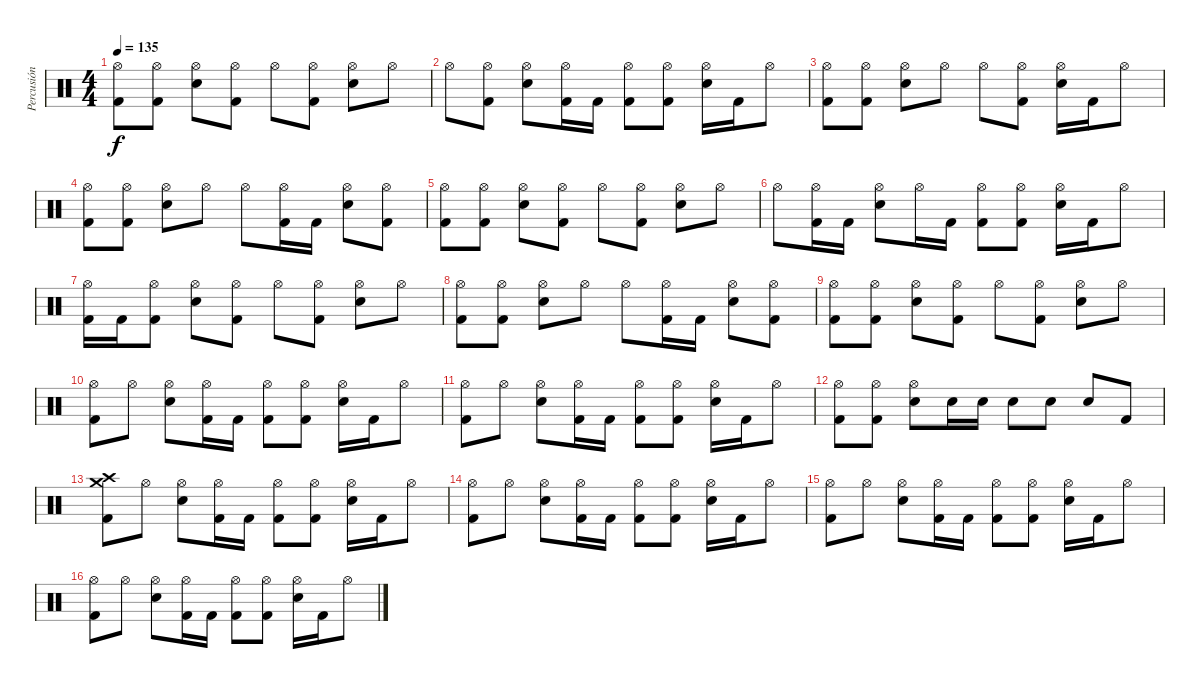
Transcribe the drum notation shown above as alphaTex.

\track ("Percusión" "Percusión") {instrument percussion}
\staff {score}
\articulation defaults
\ts (4 4)
\tempo 135
\clef neutral
\ks c
("Hi-Hat (open)" "Kick (hit) 2").8{dy f} ("Hi-Hat (open)" "Kick (hit) 2").8 ("Hi-Hat (open)" "Electric Snare (hit)").8 ("Hi-Hat (open)" "Kick (hit) 2").8 "Hi-Hat (open)".8 ("Hi-Hat (open)" "Kick (hit) 2").8 ("Hi-Hat (open)" "Electric Snare (hit)").8 "Hi-Hat (open)".8 |
"Hi-Hat (open)".8 ("Hi-Hat (open)" "Kick (hit) 2").8 ("Hi-Hat (open)" "Electric Snare (hit)").8 ("Hi-Hat (open)" "Kick (hit) 2").16 "Kick (hit) 2".16 ("Hi-Hat (open)" "Kick (hit) 2").8 ("Hi-Hat (open)" "Kick (hit) 2").8 ("Hi-Hat (open)" "Electric Snare (hit)").16 "Kick (hit) 2".16 "Hi-Hat (open)".8 |
("Hi-Hat (open)" "Kick (hit) 2").8 ("Hi-Hat (open)" "Kick (hit) 2").8 ("Hi-Hat (open)" "Electric Snare (hit)").8 "Hi-Hat (open)".8 "Hi-Hat (open)".8 ("Hi-Hat (open)" "Kick (hit) 2").8 ("Hi-Hat (open)" "Electric Snare (hit)").16 "Kick (hit) 2".16 "Hi-Hat (open)".8 |
("Hi-Hat (open)" "Kick (hit) 2").8 ("Hi-Hat (open)" "Kick (hit) 2").8 ("Hi-Hat (open)" "Electric Snare (hit)").8 "Hi-Hat (open)".8 "Hi-Hat (open)".8 ("Hi-Hat (open)" "Kick (hit) 2").16 "Kick (hit) 2".16 ("Hi-Hat (open)" "Electric Snare (hit)").8 ("Hi-Hat (open)" "Kick (hit) 2").8 |
("Hi-Hat (open)" "Kick (hit) 2").8 ("Hi-Hat (open)" "Kick (hit) 2").8 ("Hi-Hat (open)" "Electric Snare (hit)").8 ("Hi-Hat (open)" "Kick (hit) 2").8 "Hi-Hat (open)".8 ("Hi-Hat (open)" "Kick (hit) 2").8 ("Hi-Hat (open)" "Electric Snare (hit)").8 "Hi-Hat (open)".8 |
"Hi-Hat (open)".8 ("Hi-Hat (open)" "Kick (hit) 2").16 "Kick (hit) 2".16 ("Hi-Hat (open)" "Electric Snare (hit)").8 "Hi-Hat (open)".16 "Kick (hit) 2".16 ("Hi-Hat (open)" "Kick (hit) 2").8 ("Hi-Hat (open)" "Kick (hit) 2").8 ("Hi-Hat (open)" "Electric Snare (hit)").16 "Kick (hit) 2".16 "Hi-Hat (open)".8 |
("Hi-Hat (open)" "Kick (hit) 2").16 "Kick (hit) 2".16 ("Hi-Hat (open)" "Kick (hit) 2").8 ("Hi-Hat (open)" "Electric Snare (hit)").8 ("Hi-Hat (open)" "Kick (hit) 2").8 "Hi-Hat (open)".8 ("Hi-Hat (open)" "Kick (hit) 2").8 ("Hi-Hat (open)" "Electric Snare (hit)").8 "Hi-Hat (open)".8 |
("Hi-Hat (open)" "Kick (hit) 2").8 ("Hi-Hat (open)" "Kick (hit) 2").8 ("Hi-Hat (open)" "Electric Snare (hit)").8 "Hi-Hat (open)".8 "Hi-Hat (open)".8 ("Hi-Hat (open)" "Kick (hit) 2").16 "Kick (hit) 2".16 ("Hi-Hat (open)" "Electric Snare (hit)").8 ("Hi-Hat (open)" "Kick (hit) 2").8 |
("Hi-Hat (open)" "Kick (hit) 2").8 ("Hi-Hat (open)" "Kick (hit) 2").8 ("Hi-Hat (open)" "Electric Snare (hit)").8 ("Hi-Hat (open)" "Kick (hit) 2").8 "Hi-Hat (open)".8 ("Hi-Hat (open)" "Kick (hit) 2").8 ("Hi-Hat (open)" "Electric Snare (hit)").8 "Hi-Hat (open)".8 |
("Hi-Hat (open)" "Kick (hit) 2").8 "Hi-Hat (open)".8 ("Hi-Hat (open)" "Electric Snare (hit)").8 ("Hi-Hat (open)" "Kick (hit) 2").16 "Kick (hit) 2".16 ("Hi-Hat (open)" "Kick (hit) 2").8 ("Hi-Hat (open)" "Kick (hit) 2").8 ("Hi-Hat (open)" "Electric Snare (hit)").16 "Kick (hit) 2".16 "Hi-Hat (open)".8 |
("Hi-Hat (open)" "Kick (hit) 2").8 "Hi-Hat (open)".8 ("Hi-Hat (open)" "Electric Snare (hit)").8 ("Hi-Hat (open)" "Kick (hit) 2").16 "Kick (hit) 2".16 ("Hi-Hat (open)" "Kick (hit) 2").8 ("Hi-Hat (open)" "Kick (hit) 2").8 ("Hi-Hat (open)" "Electric Snare (hit)").16 "Kick (hit) 2".16 "Hi-Hat (open)".8 |
("Hi-Hat (open)" "Kick (hit) 2").8 ("Hi-Hat (open)" "Kick (hit) 2").8 ("Hi-Hat (open)" "Electric Snare (hit)").8 "Electric Snare (hit)".16 "Electric Snare (hit)".16 "Electric Snare (hit)".8 "Electric Snare (hit)".8 "Electric Snare (hit)".8 "Kick (hit) 2".8 |
("Crash medium (hit)" "Crash high (hit)" "Kick (hit) 2").8 "Hi-Hat (open)".8 ("Hi-Hat (open)" "Electric Snare (hit)").8 ("Hi-Hat (open)" "Kick (hit) 2").16 "Kick (hit) 2".16 ("Hi-Hat (open)" "Kick (hit) 2").8 ("Hi-Hat (open)" "Kick (hit) 2").8 ("Hi-Hat (open)" "Electric Snare (hit)").16 "Kick (hit) 2".16 "Hi-Hat (open)".8 |
("Hi-Hat (open)" "Kick (hit) 2").8 "Hi-Hat (open)".8 ("Hi-Hat (open)" "Electric Snare (hit)").8 ("Hi-Hat (open)" "Kick (hit) 2").16 "Kick (hit) 2".16 ("Hi-Hat (open)" "Kick (hit) 2").8 ("Hi-Hat (open)" "Kick (hit) 2").8 ("Hi-Hat (open)" "Electric Snare (hit)").16 "Kick (hit) 2".16 "Hi-Hat (open)".8 |
("Hi-Hat (open)" "Kick (hit) 2").8 "Hi-Hat (open)".8 ("Hi-Hat (open)" "Electric Snare (hit)").8 ("Hi-Hat (open)" "Kick (hit) 2").16 "Kick (hit) 2".16 ("Hi-Hat (open)" "Kick (hit) 2").8 ("Hi-Hat (open)" "Kick (hit) 2").8 ("Hi-Hat (open)" "Electric Snare (hit)").16 "Kick (hit) 2".16 "Hi-Hat (open)".8 |
("Hi-Hat (open)" "Kick (hit) 2").8 "Hi-Hat (open)".8 ("Hi-Hat (open)" "Electric Snare (hit)").8 ("Hi-Hat (open)" "Kick (hit) 2").16 "Kick (hit) 2".16 ("Hi-Hat (open)" "Kick (hit) 2").8 ("Hi-Hat (open)" "Kick (hit) 2").8 ("Hi-Hat (open)" "Electric Snare (hit)").16 "Kick (hit) 2".16 "Hi-Hat (open)".8
